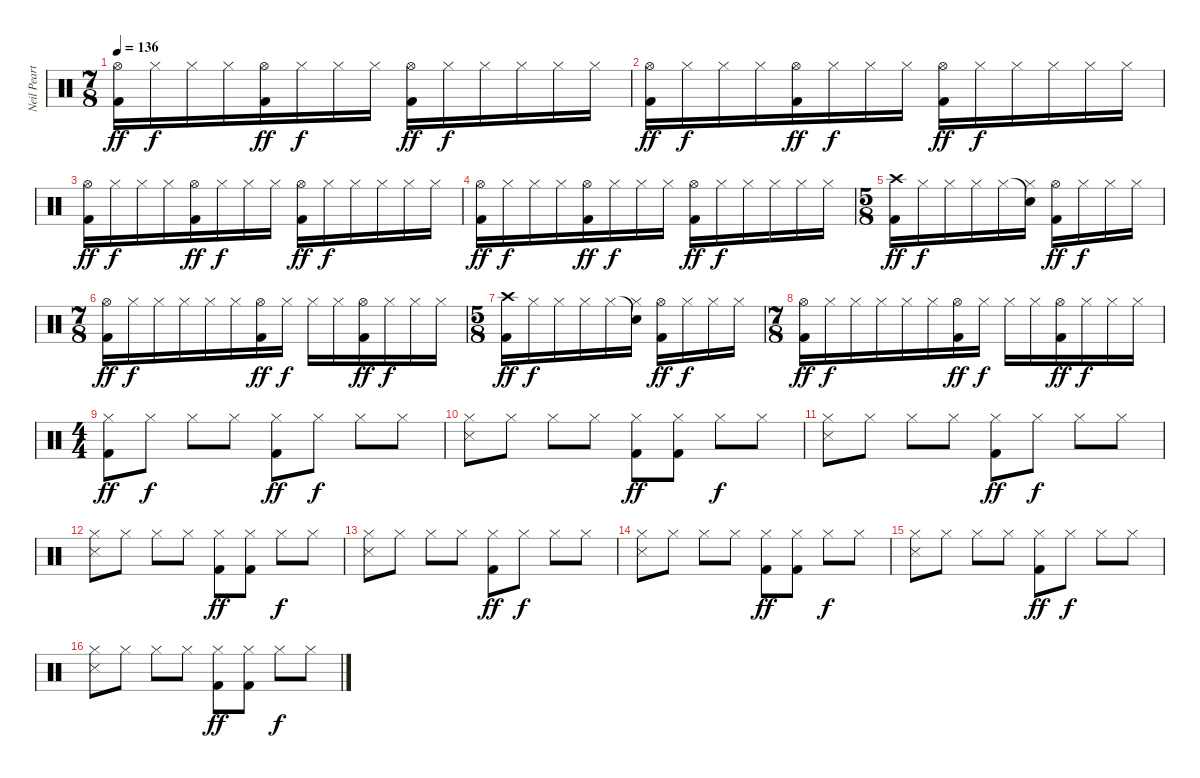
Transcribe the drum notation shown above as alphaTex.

\track ("Neil Peart" "Neil Peart") {instrument percussion}
\staff {score}
\articulation defaults
\ts (7 8)
\tempo 136
\clef neutral
\ks c
("Hi-Hat (open)" "Kick (hit) 2").16{dy ff} "Hi-Hat (closed)".16{dy f} "Hi-Hat (closed)".16 "Hi-Hat (closed)".16 ("Hi-Hat (open)" "Kick (hit) 2").16{dy ff} "Hi-Hat (closed)".16{dy f} "Hi-Hat (closed)".16 "Hi-Hat (closed)".16 ("Hi-Hat (open)" "Kick (hit) 2").16{dy ff} "Hi-Hat (closed)".16{dy f} "Hi-Hat (closed)".16 "Hi-Hat (closed)".16 "Hi-Hat (closed)".16 "Hi-Hat (closed)".16 |
("Hi-Hat (open)" "Kick (hit) 2").16{dy ff} "Hi-Hat (closed)".16{dy f} "Hi-Hat (closed)".16 "Hi-Hat (closed)".16 ("Hi-Hat (open)" "Kick (hit) 2").16{dy ff} "Hi-Hat (closed)".16{dy f} "Hi-Hat (closed)".16 "Hi-Hat (closed)".16 ("Hi-Hat (open)" "Kick (hit) 2").16{dy ff} "Hi-Hat (closed)".16{dy f} "Hi-Hat (closed)".16 "Hi-Hat (closed)".16 "Hi-Hat (closed)".16 "Hi-Hat (closed)".16 |
("Hi-Hat (open)" "Kick (hit) 2").16{dy ff} "Hi-Hat (closed)".16{dy f} "Hi-Hat (closed)".16 "Hi-Hat (closed)".16 ("Hi-Hat (open)" "Kick (hit) 2").16{dy ff} "Hi-Hat (closed)".16{dy f} "Hi-Hat (closed)".16 "Hi-Hat (closed)".16 ("Hi-Hat (open)" "Kick (hit) 2").16{dy ff} "Hi-Hat (closed)".16{dy f} "Hi-Hat (closed)".16 "Hi-Hat (closed)".16 "Hi-Hat (closed)".16 "Hi-Hat (closed)".16 |
("Hi-Hat (open)" "Kick (hit) 2").16{dy ff} "Hi-Hat (closed)".16{dy f} "Hi-Hat (closed)".16 "Hi-Hat (closed)".16 ("Hi-Hat (open)" "Kick (hit) 2").16{dy ff} "Hi-Hat (closed)".16{dy f} "Hi-Hat (closed)".16 "Hi-Hat (closed)".16 ("Hi-Hat (open)" "Kick (hit) 2").16{dy ff} "Hi-Hat (closed)".16{dy f} "Hi-Hat (closed)".16 "Hi-Hat (closed)".16 "Hi-Hat (closed)".16 "Hi-Hat (closed)".16 |
\ts (5 8)
("Crash high (hit)" "Kick (hit) 2").16{dy ff} "Hi-Hat (closed)".16{dy f} "Hi-Hat (closed)".16 "Hi-Hat (closed)".16 "Hi-Hat (closed)".16 ("Snare (hit)"{t} "Hi-Hat (closed)").16 ("Hi-Hat (open)" "Kick (hit) 2").16{dy ff} "Hi-Hat (closed)".16{dy f} "Hi-Hat (closed)".16 "Hi-Hat (closed)".16 |
\ts (7 8)
("Hi-Hat (open)" "Kick (hit) 2").16{dy ff} "Hi-Hat (closed)".16{dy f} "Hi-Hat (closed)".16 "Hi-Hat (closed)".16 "Hi-Hat (closed)".16 "Hi-Hat (closed)".16 ("Hi-Hat (open)" "Kick (hit) 2").16{dy ff} "Hi-Hat (closed)".16{dy f} "Hi-Hat (closed)".16 "Hi-Hat (closed)".16 ("Hi-Hat (open)" "Kick (hit) 2").16{dy ff} "Hi-Hat (closed)".16{dy f} "Hi-Hat (closed)".16 "Hi-Hat (closed)".16 |
\ts (5 8)
("Crash high (hit)" "Kick (hit) 2").16{dy ff} "Hi-Hat (closed)".16{dy f} "Hi-Hat (closed)".16 "Hi-Hat (closed)".16 "Hi-Hat (closed)".16 ("Snare (hit)"{t} "Hi-Hat (closed)").16 ("Hi-Hat (open)" "Kick (hit) 2").16{dy ff} "Hi-Hat (closed)".16{dy f} "Hi-Hat (closed)".16 "Hi-Hat (closed)".16 |
\ts (7 8)
("Hi-Hat (open)" "Kick (hit) 2").16{dy ff} "Hi-Hat (closed)".16{dy f} "Hi-Hat (closed)".16 "Hi-Hat (closed)".16 "Hi-Hat (closed)".16 "Hi-Hat (closed)".16 ("Hi-Hat (open)" "Kick (hit) 2").16{dy ff} "Hi-Hat (closed)".16{dy f} "Hi-Hat (closed)".16 "Hi-Hat (closed)".16 ("Hi-Hat (open)" "Kick (hit) 2").16{dy ff} "Hi-Hat (closed)".16{dy f} "Hi-Hat (closed)".16 "Hi-Hat (closed)".16 |
\ts (4 4)
("Hi-Hat (closed)" "Kick (hit) 2").8{dy ff} "Hi-Hat (closed)".8{dy f} "Hi-Hat (closed)".8 "Hi-Hat (closed)".8 ("Hi-Hat (closed)" "Kick (hit) 2").8{dy ff} "Hi-Hat (closed)".8{dy f} "Hi-Hat (closed)".8 "Hi-Hat (closed)".8 |
("Hi-Hat (closed)" "Snare (side stick) 3").8 "Hi-Hat (closed)".8 "Hi-Hat (closed)".8 "Hi-Hat (closed)".8 ("Hi-Hat (closed)" "Kick (hit) 2").8{dy ff} ("Hi-Hat (closed)" "Kick (hit) 2").8 "Hi-Hat (closed)".8{dy f} "Hi-Hat (closed)".8 |
("Hi-Hat (closed)" "Snare (side stick) 3").8 "Hi-Hat (closed)".8 "Hi-Hat (closed)".8 "Hi-Hat (closed)".8 ("Hi-Hat (closed)" "Kick (hit) 2").8{dy ff} "Hi-Hat (closed)".8{dy f} "Hi-Hat (closed)".8 "Hi-Hat (closed)".8 |
("Hi-Hat (closed)" "Snare (side stick) 3").8 "Hi-Hat (closed)".8 "Hi-Hat (closed)".8 "Hi-Hat (closed)".8 ("Hi-Hat (closed)" "Kick (hit) 2").8{dy ff} ("Hi-Hat (closed)" "Kick (hit) 2").8 "Hi-Hat (closed)".8{dy f} "Hi-Hat (closed)".8 |
("Hi-Hat (closed)" "Snare (side stick) 3").8 "Hi-Hat (closed)".8 "Hi-Hat (closed)".8 "Hi-Hat (closed)".8 ("Hi-Hat (closed)" "Kick (hit) 2").8{dy ff} "Hi-Hat (closed)".8{dy f} "Hi-Hat (closed)".8 "Hi-Hat (closed)".8 |
("Hi-Hat (closed)" "Snare (side stick) 3").8 "Hi-Hat (closed)".8 "Hi-Hat (closed)".8 "Hi-Hat (closed)".8 ("Hi-Hat (closed)" "Kick (hit) 2").8{dy ff} ("Hi-Hat (closed)" "Kick (hit) 2").8 "Hi-Hat (closed)".8{dy f} "Hi-Hat (closed)".8 |
("Hi-Hat (closed)" "Snare (side stick) 3").8 "Hi-Hat (closed)".8 "Hi-Hat (closed)".8 "Hi-Hat (closed)".8 ("Hi-Hat (closed)" "Kick (hit) 2").8{dy ff} "Hi-Hat (closed)".8{dy f} "Hi-Hat (closed)".8 "Hi-Hat (closed)".8 |
("Hi-Hat (closed)" "Snare (side stick) 3").8 "Hi-Hat (closed)".8 "Hi-Hat (closed)".8 "Hi-Hat (closed)".8 ("Hi-Hat (closed)" "Kick (hit) 2").8{dy ff} ("Hi-Hat (closed)" "Kick (hit) 2").8 "Hi-Hat (closed)".8{dy f} "Hi-Hat (closed)".8
